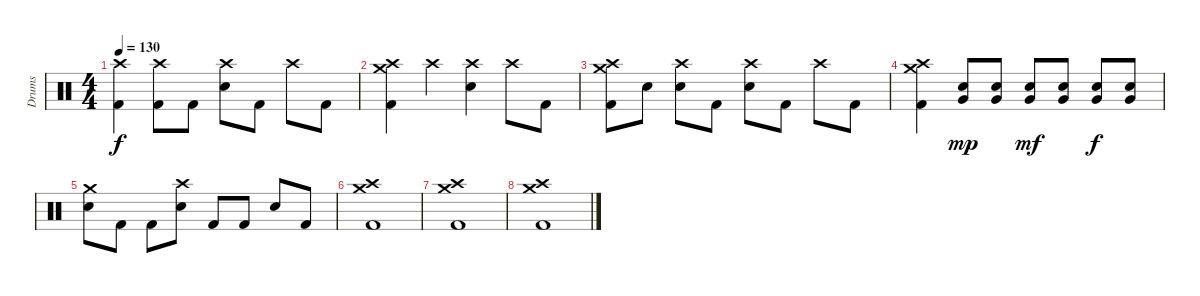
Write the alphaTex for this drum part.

\track ("Drums" "Drums") {instrument percussion}
\staff {score}
\articulation defaults
\ts (4 4)
\tempo 130
\clef neutral
\ks c
("Crash high (hit)" "Kick (hit) 2").4{dy f} ("Crash high (hit)" "Kick (hit) 2").8 "Kick (hit) 2".8 ("Crash high (hit)" "Electric Snare (hit)").8 "Kick (hit) 2".8 "Crash high (hit)".8 "Kick (hit) 2".8 |
("Crash high (hit)" "Crash medium (hit)" "Kick (hit) 2").4 "Crash high (hit)".4 ("Crash high (hit)" "Electric Snare (hit)").4 "Crash high (hit)".8 "Kick (hit) 2".8 |
("Crash high (hit)" "Crash medium (hit)" "Kick (hit) 2").8 "Electric Snare (hit)".8 ("Crash high (hit)" "Electric Snare (hit)").8 "Kick (hit) 2".8 ("Crash high (hit)" "Electric Snare (hit)").8 "Kick (hit) 2".8 "Crash high (hit)".8 "Kick (hit) 2".8 |
("Crash high (hit)" "Crash medium (hit)" "Kick (hit) 2").4 ("Very Low Tom (hit)" "Electric Snare (hit)").8{dy mp} ("Very Low Tom (hit)" "Electric Snare (hit)").8 ("Very Low Tom (hit)" "Electric Snare (hit)").8{dy mf} ("Very Low Tom (hit)" "Electric Snare (hit)").8 ("Very Low Tom (hit)" "Electric Snare (hit)").8{dy f} ("Very Low Tom (hit)" "Electric Snare (hit)").8 |
("Crash medium (hit)" "Electric Snare (hit)").8 "Kick (hit) 2".8 "Kick (hit) 2".8 ("Crash high (hit)" "Electric Snare (hit)").8 "Kick (hit) 2".8 "Kick (hit) 2".8 "Electric Snare (hit)".8 "Kick (hit) 2".8 |
("Crash high (hit)" "Crash medium (hit)" "Kick (hit) 2").1 |
("Crash high (hit)" "Crash medium (hit)" "Kick (hit) 2").1 |
("Crash high (hit)" "Crash medium (hit)" "Kick (hit) 2").1
